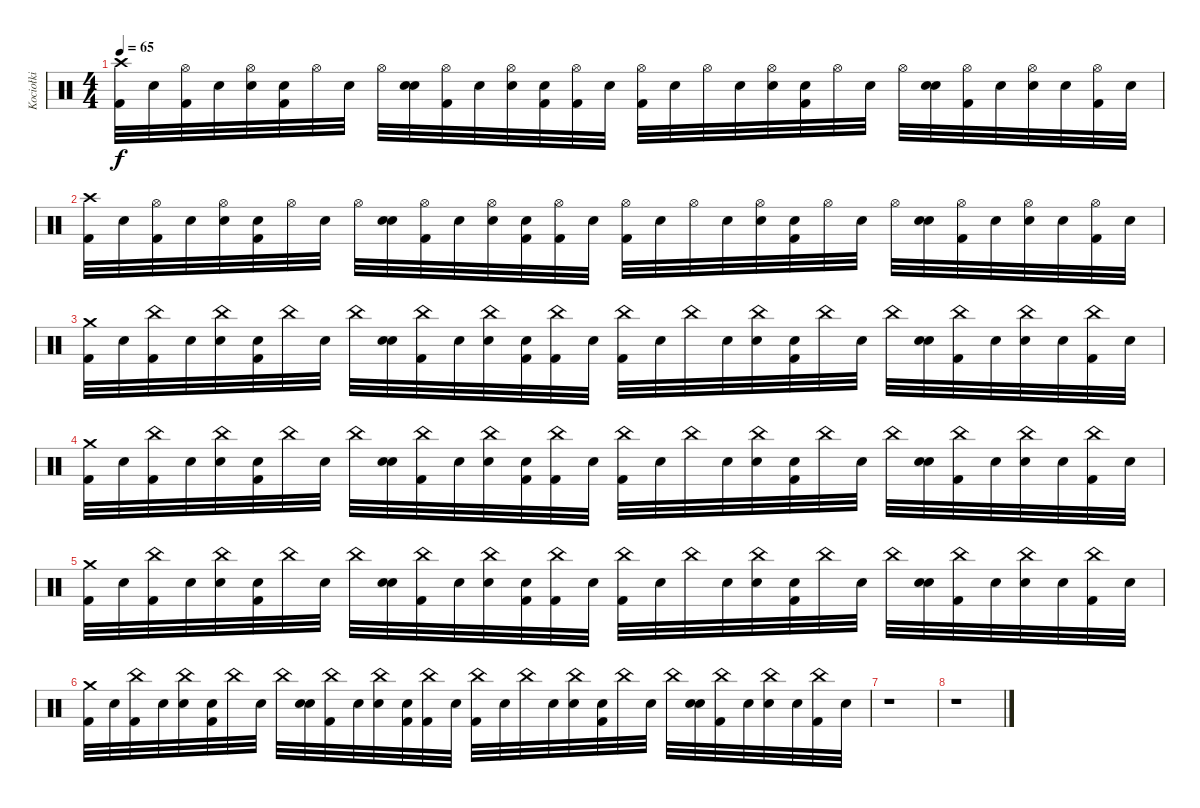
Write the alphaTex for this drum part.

\track ("Kociołki" "Kociołki") {instrument percussion}
\staff {score}
\articulation defaults
\ts (4 4)
\tempo 65
\clef neutral
\ks c
("Crash high (hit)" "Kick (hit) 2").32{dy f} "Snare (hit)".32 ("Hi-Hat (open)" "Kick (hit) 2").32 "Snare (hit)".32 ("Hi-Hat (open)" "Snare (hit) 2").32 ("Snare (hit)" "Kick (hit) 2").32 "Hi-Hat (open)".32 "Snare (hit)".32 "Hi-Hat (open)".32 ("Snare (hit)" "Snare (hit) 2").32 ("Hi-Hat (open)" "Kick (hit) 2").32 "Snare (hit)".32 ("Hi-Hat (open)" "Snare (hit) 2").32 ("Snare (hit)" "Kick (hit) 2").32 ("Hi-Hat (open)" "Kick (hit) 2").32 "Snare (hit)".32 ("Hi-Hat (open)" "Kick (hit) 2").32 "Snare (hit)".32 "Hi-Hat (open)".32 "Snare (hit)".32 ("Hi-Hat (open)" "Snare (hit) 2").32 ("Snare (hit)" "Kick (hit) 2").32 "Hi-Hat (open)".32 "Snare (hit)".32 "Hi-Hat (open)".32 ("Snare (hit)" "Snare (hit) 2").32 ("Hi-Hat (open)" "Kick (hit) 2").32 "Snare (hit)".32 ("Hi-Hat (open)" "Snare (hit) 2").32 "Snare (hit)".32 ("Hi-Hat (open)" "Kick (hit) 2").32 "Snare (hit)".32 |
("Crash high (hit)" "Kick (hit) 2").32 "Snare (hit)".32 ("Hi-Hat (open)" "Kick (hit) 2").32 "Snare (hit)".32 ("Hi-Hat (open)" "Snare (hit) 2").32 ("Snare (hit)" "Kick (hit) 2").32 "Hi-Hat (open)".32 "Snare (hit)".32 "Hi-Hat (open)".32 ("Snare (hit)" "Snare (hit) 2").32 ("Hi-Hat (open)" "Kick (hit) 2").32 "Snare (hit)".32 ("Hi-Hat (open)" "Snare (hit) 2").32 ("Snare (hit)" "Kick (hit) 2").32 ("Hi-Hat (open)" "Kick (hit) 2").32 "Snare (hit)".32 ("Hi-Hat (open)" "Kick (hit) 2").32 "Snare (hit)".32 "Hi-Hat (open)".32 "Snare (hit)".32 ("Hi-Hat (open)" "Snare (hit) 2").32 ("Snare (hit)" "Kick (hit) 2").32 "Hi-Hat (open)".32 "Snare (hit)".32 "Hi-Hat (open)".32 ("Snare (hit)" "Snare (hit) 2").32 ("Hi-Hat (open)" "Kick (hit) 2").32 "Snare (hit)".32 ("Hi-Hat (open)" "Snare (hit) 2").32 "Snare (hit)".32 ("Hi-Hat (open)" "Kick (hit) 2").32 "Snare (hit)".32 |
("Crash medium (hit)" "Kick (hit) 2").32 "Snare (hit)".32 ("China (hit)" "Kick (hit) 2").32 "Snare (hit)".32 ("China (hit)" "Snare (hit) 2").32 ("Snare (hit)" "Kick (hit) 2").32 "China (hit)".32 "Snare (hit)".32 "China (hit)".32 ("Snare (hit)" "Snare (hit) 2").32 ("China (hit)" "Kick (hit) 2").32 "Snare (hit)".32 ("China (hit)" "Snare (hit) 2").32 ("Snare (hit)" "Kick (hit) 2").32 ("China (hit)" "Kick (hit) 2").32 "Snare (hit)".32 ("China (hit)" "Kick (hit) 2").32 "Snare (hit)".32 "China (hit)".32 "Snare (hit)".32 ("China (hit)" "Snare (hit) 2").32 ("Snare (hit)" "Kick (hit) 2").32 "China (hit)".32 "Snare (hit)".32 "China (hit)".32 ("Snare (hit)" "Snare (hit) 2").32 ("China (hit)" "Kick (hit) 2").32 "Snare (hit)".32 ("China (hit)" "Snare (hit) 2").32 "Snare (hit)".32 ("China (hit)" "Kick (hit) 2").32 "Snare (hit)".32 |
("Crash medium (hit)" "Kick (hit) 2").32 "Snare (hit)".32 ("China (hit)" "Kick (hit) 2").32 "Snare (hit)".32 ("China (hit)" "Snare (hit) 2").32 ("Snare (hit)" "Kick (hit) 2").32 "China (hit)".32 "Snare (hit)".32 "China (hit)".32 ("Snare (hit)" "Snare (hit) 2").32 ("China (hit)" "Kick (hit) 2").32 "Snare (hit)".32 ("China (hit)" "Snare (hit) 2").32 ("Snare (hit)" "Kick (hit) 2").32 ("China (hit)" "Kick (hit) 2").32 "Snare (hit)".32 ("China (hit)" "Kick (hit) 2").32 "Snare (hit)".32 "China (hit)".32 "Snare (hit)".32 ("China (hit)" "Snare (hit) 2").32 ("Snare (hit)" "Kick (hit) 2").32 "China (hit)".32 "Snare (hit)".32 "China (hit)".32 ("Snare (hit)" "Snare (hit) 2").32 ("China (hit)" "Kick (hit) 2").32 "Snare (hit)".32 ("China (hit)" "Snare (hit) 2").32 "Snare (hit)".32 ("China (hit)" "Kick (hit) 2").32 "Snare (hit)".32 |
("Crash medium (hit)" "Kick (hit) 2").32 "Snare (hit)".32 ("China (hit)" "Kick (hit) 2").32 "Snare (hit)".32 ("China (hit)" "Snare (hit) 2").32 ("Snare (hit)" "Kick (hit) 2").32 "China (hit)".32 "Snare (hit)".32 "China (hit)".32 ("Snare (hit)" "Snare (hit) 2").32 ("China (hit)" "Kick (hit) 2").32 "Snare (hit)".32 ("China (hit)" "Snare (hit) 2").32 ("Snare (hit)" "Kick (hit) 2").32 ("China (hit)" "Kick (hit) 2").32 "Snare (hit)".32 ("China (hit)" "Kick (hit) 2").32 "Snare (hit)".32 "China (hit)".32 "Snare (hit)".32 ("China (hit)" "Snare (hit) 2").32 ("Snare (hit)" "Kick (hit) 2").32 "China (hit)".32 "Snare (hit)".32 "China (hit)".32 ("Snare (hit)" "Snare (hit) 2").32 ("China (hit)" "Kick (hit) 2").32 "Snare (hit)".32 ("China (hit)" "Snare (hit) 2").32 "Snare (hit)".32 ("China (hit)" "Kick (hit) 2").32 "Snare (hit)".32 |
("Crash medium (hit)" "Kick (hit) 2").32 "Snare (hit)".32 ("China (hit)" "Kick (hit) 2").32 "Snare (hit)".32 ("China (hit)" "Snare (hit) 2").32 ("Snare (hit)" "Kick (hit) 2").32 "China (hit)".32 "Snare (hit)".32 "China (hit)".32 ("Snare (hit)" "Snare (hit) 2").32 ("China (hit)" "Kick (hit) 2").32 "Snare (hit)".32 ("China (hit)" "Snare (hit) 2").32 ("Snare (hit)" "Kick (hit) 2").32 ("China (hit)" "Kick (hit) 2").32 "Snare (hit)".32 ("China (hit)" "Kick (hit) 2").32 "Snare (hit)".32 "China (hit)".32 "Snare (hit)".32 ("China (hit)" "Snare (hit) 2").32 ("Snare (hit)" "Kick (hit) 2").32 "China (hit)".32 "Snare (hit)".32 "China (hit)".32 ("Snare (hit)" "Snare (hit) 2").32 ("China (hit)" "Kick (hit) 2").32 "Snare (hit)".32 ("China (hit)" "Snare (hit) 2").32 "Snare (hit)".32 ("China (hit)" "Kick (hit) 2").32 "Snare (hit)".32 |
r.1 |
r.1
